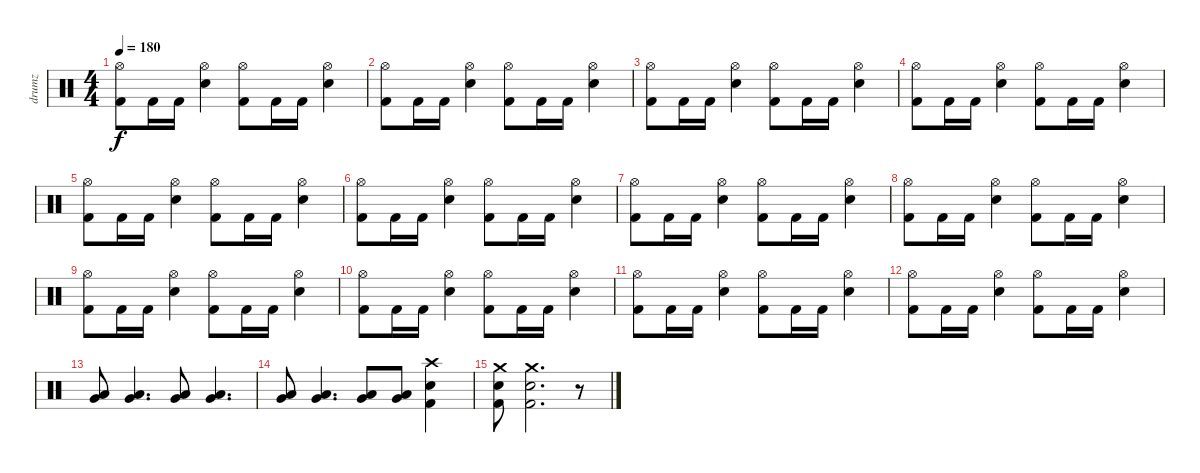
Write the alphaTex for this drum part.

\track ("drumz" "drumz") {instrument percussion}
\staff {score}
\articulation defaults
\ts (4 4)
\tempo 180
\clef neutral
\ks c
("Hi-Hat (open)" "Kick (hit) 2").8{dy f} "Kick (hit) 2".16 "Kick (hit) 2".16 ("Hi-Hat (open)" "Electric Snare (hit)").4 ("Hi-Hat (open)" "Kick (hit) 2").8 "Kick (hit) 2".16 "Kick (hit) 2".16 ("Hi-Hat (open)" "Electric Snare (hit)").4 |
("Hi-Hat (open)" "Kick (hit) 2").8 "Kick (hit) 2".16 "Kick (hit) 2".16 ("Hi-Hat (open)" "Electric Snare (hit)").4 ("Hi-Hat (open)" "Kick (hit) 2").8 "Kick (hit) 2".16 "Kick (hit) 2".16 ("Hi-Hat (open)" "Electric Snare (hit)").4 |
("Hi-Hat (open)" "Kick (hit) 2").8 "Kick (hit) 2".16 "Kick (hit) 2".16 ("Hi-Hat (open)" "Electric Snare (hit)").4 ("Hi-Hat (open)" "Kick (hit) 2").8 "Kick (hit) 2".16 "Kick (hit) 2".16 ("Hi-Hat (open)" "Electric Snare (hit)").4 |
("Hi-Hat (open)" "Kick (hit) 2").8 "Kick (hit) 2".16 "Kick (hit) 2".16 ("Hi-Hat (open)" "Electric Snare (hit)").4 ("Hi-Hat (open)" "Kick (hit) 2").8 "Kick (hit) 2".16 "Kick (hit) 2".16 ("Hi-Hat (open)" "Electric Snare (hit)").4 |
("Hi-Hat (open)" "Kick (hit) 2").8 "Kick (hit) 2".16 "Kick (hit) 2".16 ("Hi-Hat (open)" "Electric Snare (hit)").4 ("Hi-Hat (open)" "Kick (hit) 2").8 "Kick (hit) 2".16 "Kick (hit) 2".16 ("Hi-Hat (open)" "Electric Snare (hit)").4 |
("Hi-Hat (open)" "Kick (hit) 2").8 "Kick (hit) 2".16 "Kick (hit) 2".16 ("Hi-Hat (open)" "Electric Snare (hit)").4 ("Hi-Hat (open)" "Kick (hit) 2").8 "Kick (hit) 2".16 "Kick (hit) 2".16 ("Hi-Hat (open)" "Electric Snare (hit)").4 |
("Hi-Hat (open)" "Kick (hit) 2").8 "Kick (hit) 2".16 "Kick (hit) 2".16 ("Hi-Hat (open)" "Electric Snare (hit)").4 ("Hi-Hat (open)" "Kick (hit) 2").8 "Kick (hit) 2".16 "Kick (hit) 2".16 ("Hi-Hat (open)" "Electric Snare (hit)").4 |
("Hi-Hat (open)" "Kick (hit) 2").8 "Kick (hit) 2".16 "Kick (hit) 2".16 ("Hi-Hat (open)" "Electric Snare (hit)").4 ("Hi-Hat (open)" "Kick (hit) 2").8 "Kick (hit) 2".16 "Kick (hit) 2".16 ("Hi-Hat (open)" "Electric Snare (hit)").4 |
("Hi-Hat (open)" "Kick (hit) 2").8 "Kick (hit) 2".16 "Kick (hit) 2".16 ("Hi-Hat (open)" "Electric Snare (hit)").4 ("Hi-Hat (open)" "Kick (hit) 2").8 "Kick (hit) 2".16 "Kick (hit) 2".16 ("Hi-Hat (open)" "Electric Snare (hit)").4 |
("Hi-Hat (open)" "Kick (hit) 2").8 "Kick (hit) 2".16 "Kick (hit) 2".16 ("Hi-Hat (open)" "Electric Snare (hit)").4 ("Hi-Hat (open)" "Kick (hit) 2").8 "Kick (hit) 2".16 "Kick (hit) 2".16 ("Hi-Hat (open)" "Electric Snare (hit)").4 |
("Hi-Hat (open)" "Kick (hit) 2").8 "Kick (hit) 2".16 "Kick (hit) 2".16 ("Hi-Hat (open)" "Electric Snare (hit)").4 ("Hi-Hat (open)" "Kick (hit) 2").8 "Kick (hit) 2".16 "Kick (hit) 2".16 ("Hi-Hat (open)" "Electric Snare (hit)").4 |
("Hi-Hat (open)" "Kick (hit) 2").8 "Kick (hit) 2".16 "Kick (hit) 2".16 ("Hi-Hat (open)" "Electric Snare (hit)").4 ("Hi-Hat (open)" "Kick (hit) 2").8 "Kick (hit) 2".16 "Kick (hit) 2".16 ("Hi-Hat (open)" "Electric Snare (hit)").4 |
("Very Low Tom (hit)" "Low Floor Tom (hit)").8 ("Very Low Tom (hit)" "Low Floor Tom (hit)").4{d} ("Very Low Tom (hit)" "Low Floor Tom (hit)").8 ("Very Low Tom (hit)" "Low Floor Tom (hit)").4{d} |
("Very Low Tom (hit)" "Low Floor Tom (hit)").8 ("Very Low Tom (hit)" "Low Floor Tom (hit)").4{d} ("Very Low Tom (hit)" "Low Floor Tom (hit)").8 ("Very Low Tom (hit)" "Low Floor Tom (hit)").8 ("Crash high (hit)" "Electric Snare (hit)" "Kick (hit) 2").4 |
("Crash medium (hit)" "Electric Snare (hit)" "Kick (hit) 2").8 ("Crash medium (hit)" "Electric Snare (hit)" "Kick (hit) 2").2{d} r.8
